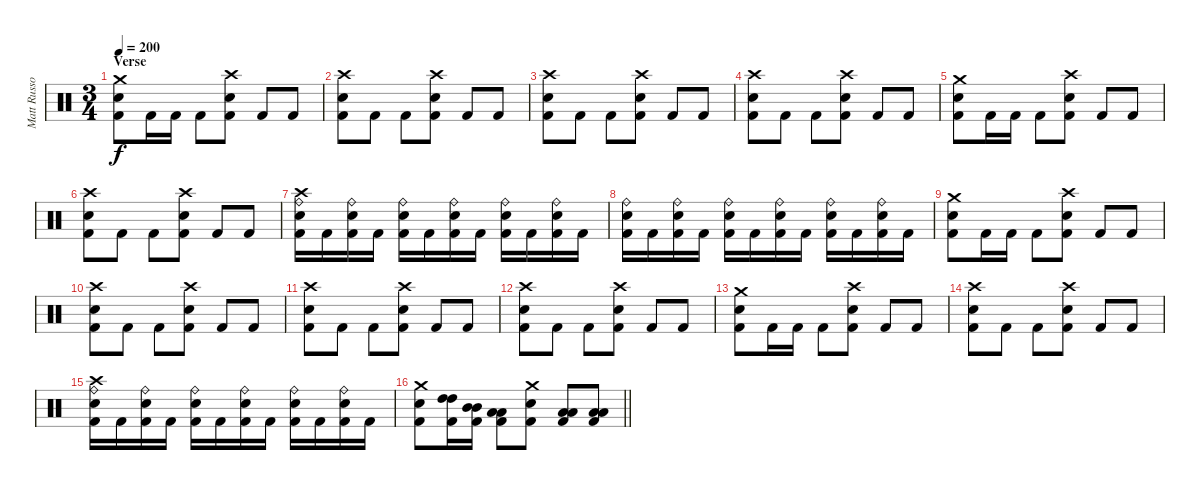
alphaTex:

\track ("Matt Russo" "Matt Russo") {instrument percussion}
\staff {score}
\articulation defaults
\ts (3 4)
\section ("" "Verse")
\tempo 200
\clef neutral
\ks c
("Crash medium (hit)" "Electric Snare (hit)" "Kick (hit) 2").8{dy f} "Kick (hit) 2".16 "Kick (hit) 2".16 "Kick (hit) 2".8 ("Crash high (hit)" "Electric Snare (hit)" "Kick (hit) 2").8 "Kick (hit) 2".8 "Kick (hit) 2".8 |
("Crash high (hit)" "Electric Snare (hit)" "Kick (hit) 2").8 "Kick (hit) 2".8 "Kick (hit) 2".8 ("Crash high (hit)" "Electric Snare (hit)" "Kick (hit) 2").8 "Kick (hit) 2".8 "Kick (hit) 2".8 |
("Crash high (hit)" "Electric Snare (hit)" "Kick (hit) 2").8 "Kick (hit) 2".8 "Kick (hit) 2".8 ("Crash high (hit)" "Electric Snare (hit)" "Kick (hit) 2").8 "Kick (hit) 2".8 "Kick (hit) 2".8 |
("Crash high (hit)" "Electric Snare (hit)" "Kick (hit) 2").8 "Kick (hit) 2".8 "Kick (hit) 2".8 ("Crash high (hit)" "Electric Snare (hit)" "Kick (hit) 2").8 "Kick (hit) 2".8 "Kick (hit) 2".8 |
("Crash medium (hit)" "Electric Snare (hit)" "Kick (hit) 2").8 "Kick (hit) 2".16 "Kick (hit) 2".16 "Kick (hit) 2".8 ("Crash high (hit)" "Electric Snare (hit)" "Kick (hit) 2").8 "Kick (hit) 2".8 "Kick (hit) 2".8 |
("Crash high (hit)" "Electric Snare (hit)" "Kick (hit) 2").8 "Kick (hit) 2".8 "Kick (hit) 2".8 ("Crash high (hit)" "Electric Snare (hit)" "Kick (hit) 2").8 "Kick (hit) 2".8 "Kick (hit) 2".8 |
("Crash high (hit)" "Ride (bell)" "Electric Snare (hit)" "Kick (hit) 2").16 "Kick (hit) 2".16 ("Ride (bell)" "Electric Snare (hit)" "Kick (hit) 2").16 "Kick (hit) 2".16 ("Ride (bell)" "Electric Snare (hit)" "Kick (hit) 2").16 "Kick (hit) 2".16 ("Ride (bell)" "Electric Snare (hit)" "Kick (hit) 2").16 "Kick (hit) 2".16 ("Ride (bell)" "Electric Snare (hit)" "Kick (hit) 2").16 "Kick (hit) 2".16 ("Ride (bell)" "Electric Snare (hit)" "Kick (hit) 2").16 "Kick (hit) 2".16 |
("Ride (bell)" "Electric Snare (hit)" "Kick (hit) 2").16 "Kick (hit) 2".16 ("Ride (bell)" "Electric Snare (hit)" "Kick (hit) 2").16 "Kick (hit) 2".16 ("Ride (bell)" "Electric Snare (hit)" "Kick (hit) 2").16 "Kick (hit) 2".16 ("Ride (bell)" "Electric Snare (hit)" "Kick (hit) 2").16 "Kick (hit) 2".16 ("Ride (bell)" "Electric Snare (hit)" "Kick (hit) 2").16 "Kick (hit) 2".16 ("Ride (bell)" "Electric Snare (hit)" "Kick (hit) 2").16 "Kick (hit) 2".16 |
("Crash medium (hit)" "Electric Snare (hit)" "Kick (hit) 2").8 "Kick (hit) 2".16 "Kick (hit) 2".16 "Kick (hit) 2".8 ("Crash high (hit)" "Electric Snare (hit)" "Kick (hit) 2").8 "Kick (hit) 2".8 "Kick (hit) 2".8 |
("Crash high (hit)" "Electric Snare (hit)" "Kick (hit) 2").8 "Kick (hit) 2".8 "Kick (hit) 2".8 ("Crash high (hit)" "Electric Snare (hit)" "Kick (hit) 2").8 "Kick (hit) 2".8 "Kick (hit) 2".8 |
("Crash high (hit)" "Electric Snare (hit)" "Kick (hit) 2").8 "Kick (hit) 2".8 "Kick (hit) 2".8 ("Crash high (hit)" "Electric Snare (hit)" "Kick (hit) 2").8 "Kick (hit) 2".8 "Kick (hit) 2".8 |
("Crash high (hit)" "Electric Snare (hit)" "Kick (hit) 2").8 "Kick (hit) 2".8 "Kick (hit) 2".8 ("Crash high (hit)" "Electric Snare (hit)" "Kick (hit) 2").8 "Kick (hit) 2".8 "Kick (hit) 2".8 |
("Crash medium (hit)" "Electric Snare (hit)" "Kick (hit) 2").8 "Kick (hit) 2".16 "Kick (hit) 2".16 "Kick (hit) 2".8 ("Crash high (hit)" "Electric Snare (hit)" "Kick (hit) 2").8 "Kick (hit) 2".8 "Kick (hit) 2".8 |
("Crash high (hit)" "Electric Snare (hit)" "Kick (hit) 2").8 "Kick (hit) 2".8 "Kick (hit) 2".8 ("Crash high (hit)" "Electric Snare (hit)" "Kick (hit) 2").8 "Kick (hit) 2".8 "Kick (hit) 2".8 |
("Crash high (hit)" "Ride (bell)" "Electric Snare (hit)" "Kick (hit) 2").16 "Kick (hit) 2".16 ("Ride (bell)" "Electric Snare (hit)" "Kick (hit) 2").16 "Kick (hit) 2".16 ("Ride (bell)" "Electric Snare (hit)" "Kick (hit) 2").16 "Kick (hit) 2".16 ("Ride (bell)" "Electric Snare (hit)" "Kick (hit) 2").16 "Kick (hit) 2".16 ("Ride (bell)" "Electric Snare (hit)" "Kick (hit) 2").16 "Kick (hit) 2".16 ("Ride (bell)" "Electric Snare (hit)" "Kick (hit) 2").16 "Kick (hit) 2".16 |
\barLineRight lightlight
("Crash medium (hit)" "Electric Snare (hit)" "Kick (hit) 2").8 ("High Tom (hit)" "High Tom (hit)" "Kick (hit) 2").16 ("Mid Tom (hit)" "Mid Tom (hit)" "Kick (hit) 2").16 ("Low Tom (hit)" "Low Tom (hit)" "Kick (hit) 2").8 ("Crash medium (hit)" "Electric Snare (hit)" "Kick (hit) 2").8 ("Low Tom (hit)" "Low Floor Tom (hit)" "Kick (hit) 2").8 ("Low Tom (hit)" "Low Floor Tom (hit)" "Kick (hit) 2").8
